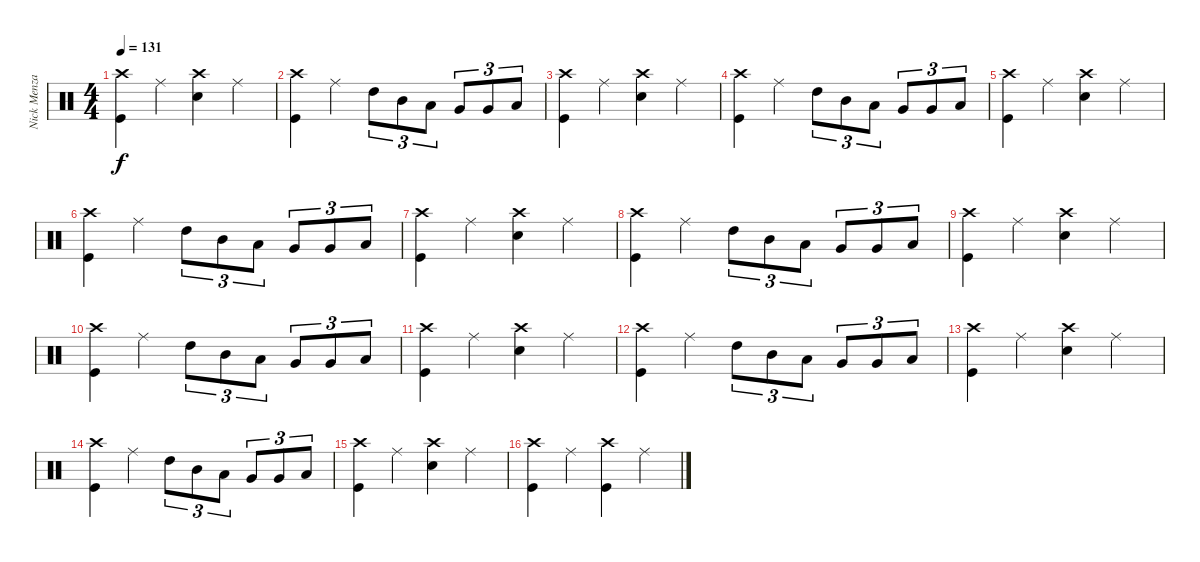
\track ("Nick Menza" "Nick Menza") {instrument percussion}
\staff {score}
\articulation defaults
\ts (4 4)
\tempo 131
\clef neutral
\ks c
("Crash high (hit)" "Kick (hit)").4{dy f} "Ride (middle)".4 ("Crash high (hit)" "Snare (hit) 2").4 "Ride (middle)".4 |
("Crash high (hit)" "Kick (hit)").4 "Ride (middle)".4 "High Tom (hit)".8{tu (3 2)} "Mid Tom (hit)".8{tu (3 2)} "Low Tom (hit)".8{tu (3 2)} "Very Low Tom (hit)".8{tu (3 2)} "Very Low Tom (hit)".8{tu (3 2)} "Low Floor Tom (hit)".8{tu (3 2)} |
("Crash high (hit)" "Kick (hit)").4 "Ride (middle)".4 ("Crash high (hit)" "Snare (hit) 2").4 "Ride (middle)".4 |
("Crash high (hit)" "Kick (hit)").4 "Ride (middle)".4 "High Tom (hit)".8{tu (3 2)} "Mid Tom (hit)".8{tu (3 2)} "Low Tom (hit)".8{tu (3 2)} "Very Low Tom (hit)".8{tu (3 2)} "Very Low Tom (hit)".8{tu (3 2)} "Low Floor Tom (hit)".8{tu (3 2)} |
("Crash high (hit)" "Kick (hit)").4 "Ride (middle)".4 ("Crash high (hit)" "Snare (hit) 2").4 "Ride (middle)".4 |
("Crash high (hit)" "Kick (hit)").4 "Ride (middle)".4 "High Tom (hit)".8{tu (3 2)} "Mid Tom (hit)".8{tu (3 2)} "Low Tom (hit)".8{tu (3 2)} "Very Low Tom (hit)".8{tu (3 2)} "Very Low Tom (hit)".8{tu (3 2)} "Low Floor Tom (hit)".8{tu (3 2)} |
("Crash high (hit)" "Kick (hit)").4 "Ride (middle)".4 ("Crash high (hit)" "Snare (hit) 2").4 "Ride (middle)".4 |
("Crash high (hit)" "Kick (hit)").4 "Ride (middle)".4 "High Tom (hit)".8{tu (3 2)} "Mid Tom (hit)".8{tu (3 2)} "Low Tom (hit)".8{tu (3 2)} "Very Low Tom (hit)".8{tu (3 2)} "Very Low Tom (hit)".8{tu (3 2)} "Low Floor Tom (hit)".8{tu (3 2)} |
("Crash high (hit)" "Kick (hit)").4 "Ride (middle)".4 ("Crash high (hit)" "Snare (hit) 2").4 "Ride (middle)".4 |
("Crash high (hit)" "Kick (hit)").4 "Ride (middle)".4 "High Tom (hit)".8{tu (3 2)} "Mid Tom (hit)".8{tu (3 2)} "Low Tom (hit)".8{tu (3 2)} "Very Low Tom (hit)".8{tu (3 2)} "Very Low Tom (hit)".8{tu (3 2)} "Low Floor Tom (hit)".8{tu (3 2)} |
("Crash high (hit)" "Kick (hit)").4 "Ride (middle)".4 ("Crash high (hit)" "Snare (hit) 2").4 "Ride (middle)".4 |
("Crash high (hit)" "Kick (hit)").4 "Ride (middle)".4 "High Tom (hit)".8{tu (3 2)} "Mid Tom (hit)".8{tu (3 2)} "Low Tom (hit)".8{tu (3 2)} "Very Low Tom (hit)".8{tu (3 2)} "Very Low Tom (hit)".8{tu (3 2)} "Low Floor Tom (hit)".8{tu (3 2)} |
("Crash high (hit)" "Kick (hit)").4 "Ride (middle)".4 ("Crash high (hit)" "Snare (hit) 2").4 "Ride (middle)".4 |
("Crash high (hit)" "Kick (hit)").4 "Ride (middle)".4 "High Tom (hit)".8{tu (3 2)} "Mid Tom (hit)".8{tu (3 2)} "Low Tom (hit)".8{tu (3 2)} "Very Low Tom (hit)".8{tu (3 2)} "Very Low Tom (hit)".8{tu (3 2)} "Low Floor Tom (hit)".8{tu (3 2)} |
("Crash high (hit)" "Kick (hit)").4 "Ride (middle)".4 ("Crash high (hit)" "Snare (hit) 2").4 "Ride (middle)".4 |
("Crash high (hit)" "Kick (hit)").4 "Ride (middle)".4 ("Crash high (hit)" "Kick (hit)").4 "Ride (middle)".4
